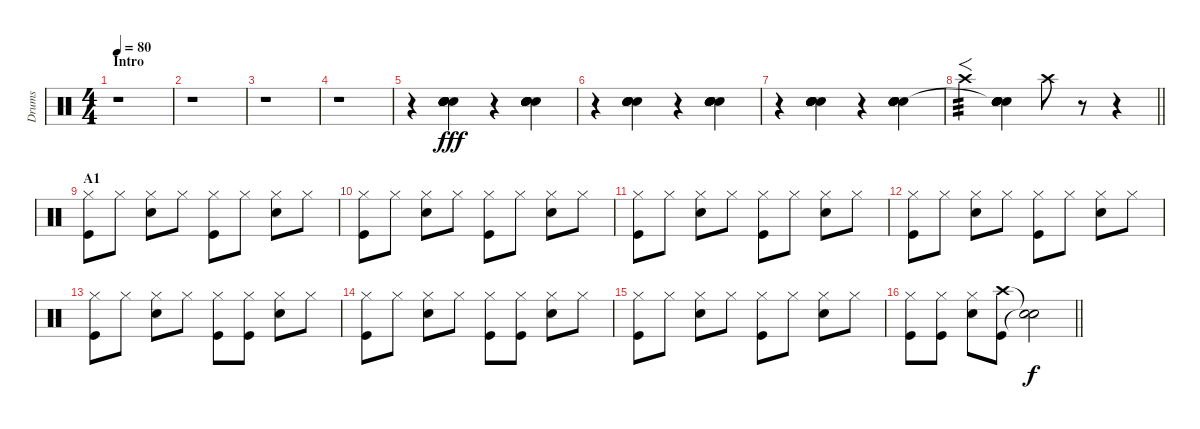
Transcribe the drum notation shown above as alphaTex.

\track ("Drums" "Drums") {instrument percussion}
\staff {score}
\articulation defaults
\ts (4 4)
\section ("" "Intro")
\tempo 80
\clef neutral
\ks c
r.1{dy fff} |
r.1 |
r.1 |
r.1 |
r.4 ("Hand Clap (hit)" "Hand Clap (hit)" "Hand Clap (hit)" "Hand Clap (hit)" "Hand Clap (hit)" "Hand Clap (hit)").4{bd 60} r.4 ("Hand Clap (hit)" "Hand Clap (hit)" "Hand Clap (hit)" "Hand Clap (hit)" "Hand Clap (hit)" "Hand Clap (hit)").4{bd 60} |
r.4 ("Hand Clap (hit)" "Hand Clap (hit)" "Hand Clap (hit)" "Hand Clap (hit)" "Hand Clap (hit)" "Hand Clap (hit)").4{bd 60} r.4 ("Hand Clap (hit)" "Hand Clap (hit)" "Hand Clap (hit)" "Hand Clap (hit)" "Hand Clap (hit)" "Hand Clap (hit)").4{bd 60} |
r.4 ("Hand Clap (hit)" "Hand Clap (hit)" "Hand Clap (hit)" "Hand Clap (hit)" "Hand Clap (hit)" "Hand Clap (hit)").4{bd 60} r.4 ("Hand Clap (hit)" "Hand Clap (hit)" "Hand Clap (hit)" "Hand Clap (hit)" "Hand Clap (hit)" "Hand Clap (hit)").4{bd 60} |
\barLineRight lightlight "Crash high (hit)".4{f tp 3}
("Hand Clap (hit)" "Snare (hit)"{t} "Hand Clap (hit)" "Hand Clap (hit)" "Hand Clap (hit)" "Hand Clap (hit)").4{bd 60} "Crash high (hit)".8 r.8 r.4 |
\section ("" "A1")
("Hi-Hat (closed)" "Kick (hit)").8 "Hi-Hat (closed)".8 ("Hi-Hat (closed)" "Snare (hit) 2").8 "Hi-Hat (closed)".8 ("Hi-Hat (closed)" "Kick (hit)").8 "Hi-Hat (closed)".8 ("Hi-Hat (closed)" "Snare (hit) 2").8 "Hi-Hat (closed)".8 |
("Hi-Hat (closed)" "Kick (hit)").8 "Hi-Hat (closed)".8 ("Hi-Hat (closed)" "Snare (hit) 2").8 "Hi-Hat (closed)".8 ("Hi-Hat (closed)" "Kick (hit)").8 "Hi-Hat (closed)".8 ("Hi-Hat (closed)" "Snare (hit) 2").8 "Hi-Hat (closed)".8 |
("Hi-Hat (closed)" "Kick (hit)").8 "Hi-Hat (closed)".8 ("Hi-Hat (closed)" "Snare (hit) 2").8 "Hi-Hat (closed)".8 ("Hi-Hat (closed)" "Kick (hit)").8 "Hi-Hat (closed)".8 ("Hi-Hat (closed)" "Snare (hit) 2").8 "Hi-Hat (closed)".8 |
("Hi-Hat (closed)" "Kick (hit)").8 "Hi-Hat (closed)".8 ("Hi-Hat (closed)" "Snare (hit) 2").8 "Hi-Hat (closed)".8 ("Hi-Hat (closed)" "Kick (hit)").8 "Hi-Hat (closed)".8 ("Hi-Hat (closed)" "Snare (hit) 2").8 "Hi-Hat (closed)".8 |
("Hi-Hat (closed)" "Kick (hit)").8 "Hi-Hat (closed)".8 ("Hi-Hat (closed)" "Snare (hit) 2").8 "Hi-Hat (closed)".8 ("Hi-Hat (closed)" "Kick (hit)").8 ("Hi-Hat (closed)" "Kick (hit)").8 ("Hi-Hat (closed)" "Snare (hit) 2").8 "Hi-Hat (closed)".8 |
("Hi-Hat (closed)" "Kick (hit)").8 "Hi-Hat (closed)".8 ("Hi-Hat (closed)" "Snare (hit) 2").8 "Hi-Hat (closed)".8 ("Hi-Hat (closed)" "Kick (hit)").8 ("Hi-Hat (closed)" "Kick (hit)").8 ("Hi-Hat (closed)" "Snare (hit) 2").8 "Hi-Hat (closed)".8 |
("Hi-Hat (closed)" "Kick (hit)").8 "Hi-Hat (closed)".8 ("Hi-Hat (closed)" "Snare (hit) 2").8 "Hi-Hat (closed)".8 ("Hi-Hat (closed)" "Kick (hit)").8 "Hi-Hat (closed)".8 ("Hi-Hat (closed)" "Snare (hit) 2").8 "Hi-Hat (closed)".8 |
\barLineRight lightlight
("Hi-Hat (closed)" "Kick (hit)").8 ("Hi-Hat (closed)" "Kick (hit)").8 ("Hi-Hat (closed)" "Snare (hit) 2").8 ("Crash high (hit)" "Kick (hit)").8 ("Snare (hit)"{t} "Snare (hit)"{t}).2{dy f}
